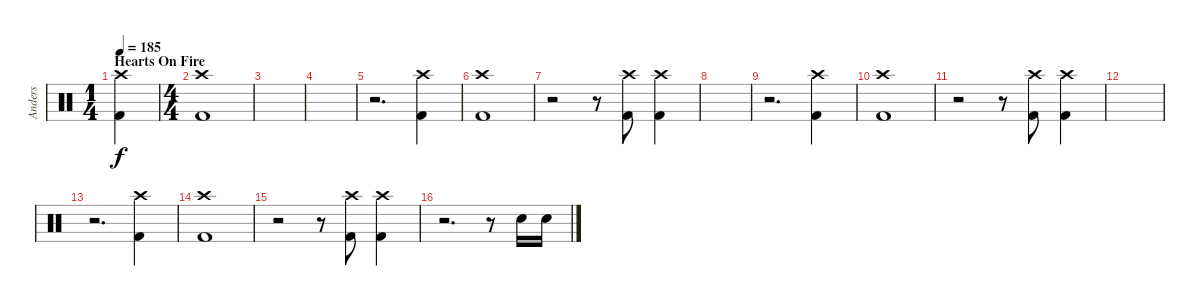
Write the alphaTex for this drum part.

\track ("Anders" "Anders") {instrument percussion}
\staff {score}
\articulation defaults
\ts (1 4)
\section ("" "Hearts On Fire")
\tempo 185
\clef neutral
\ks c
("Crash high (hit)" "Kick (hit) 2").4{dy f volume 16} |
\ts (4 4)
("Crash high (hit)" "Kick (hit) 2").1 |
|
|
r.2{d} ("Crash high (hit)" "Kick (hit) 2").4 |
("Crash high (hit)" "Kick (hit) 2").1 |
r.2 r.8 ("Crash high (hit)" "Kick (hit) 2").8 ("Crash high (hit)" "Kick (hit) 2").4 |
|
r.2{d} ("Crash high (hit)" "Kick (hit) 2").4 |
("Crash high (hit)" "Kick (hit) 2").1 |
r.2 r.8 ("Crash high (hit)" "Kick (hit) 2").8 ("Crash high (hit)" "Kick (hit) 2").4 |
|
r.2{d} ("Crash high (hit)" "Kick (hit) 2").4 |
("Crash high (hit)" "Kick (hit) 2").1 |
r.2 r.8 ("Crash high (hit)" "Kick (hit) 2").8 ("Crash high (hit)" "Kick (hit) 2").4 |
r.2{d} r.8 "Electric Snare (hit)".16 "Electric Snare (hit)".16
